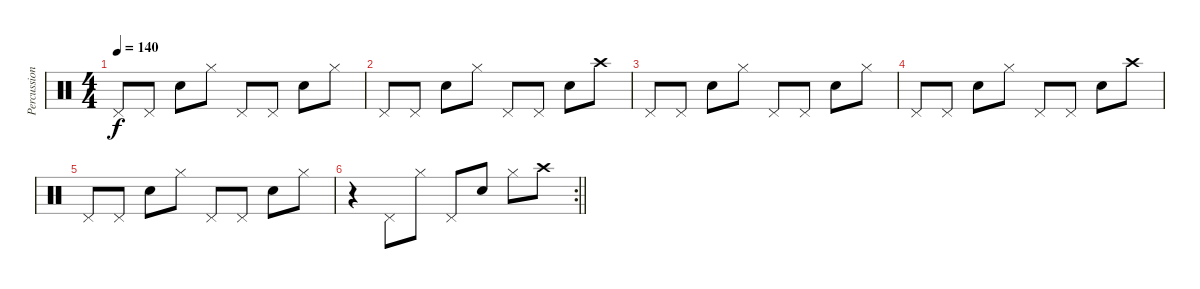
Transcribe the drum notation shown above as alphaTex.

\track ("Percussion" "Percussion") {instrument percussion}
\staff {score}
\articulation defaults
\ts (4 4)
\tempo 140
\clef neutral
\ks c "Pedal Hi-Hat (hit)".8{dy f} "Pedal Hi-Hat (hit)".8 "Snare (hit) 2".8 "Hi-Hat (closed)".8 "Pedal Hi-Hat (hit)".8 "Pedal Hi-Hat (hit)".8 "Snare (hit) 2".8 "Hi-Hat (closed)".8
|
"Pedal Hi-Hat (hit)".8 "Pedal Hi-Hat (hit)".8 "Snare (hit) 2".8 "Hi-Hat (closed)".8 "Pedal Hi-Hat (hit)".8 "Pedal Hi-Hat (hit)".8 "Snare (hit) 2".8 "Crash high (hit)".8 |
"Pedal Hi-Hat (hit)".8 "Pedal Hi-Hat (hit)".8 "Snare (hit) 2".8 "Hi-Hat (closed)".8 "Pedal Hi-Hat (hit)".8 "Pedal Hi-Hat (hit)".8 "Snare (hit) 2".8 "Hi-Hat (closed)".8 |
"Pedal Hi-Hat (hit)".8 "Pedal Hi-Hat (hit)".8 "Snare (hit) 2".8 "Hi-Hat (closed)".8 "Pedal Hi-Hat (hit)".8 "Pedal Hi-Hat (hit)".8 "Snare (hit) 2".8 "Crash high (hit)".8 |
"Pedal Hi-Hat (hit)".8 "Pedal Hi-Hat (hit)".8 "Snare (hit) 2".8 "Hi-Hat (closed)".8 "Pedal Hi-Hat (hit)".8 "Pedal Hi-Hat (hit)".8 "Snare (hit) 2".8 "Hi-Hat (closed)".8 |
\rc 2
\barLineRight lightlight
r.4 "Pedal Hi-Hat (hit)".8 "Hi-Hat (closed)".8 "Pedal Hi-Hat (hit)".8 "Snare (hit) 2".8 "Hi-Hat (closed)".8 "Crash high (hit)".8
